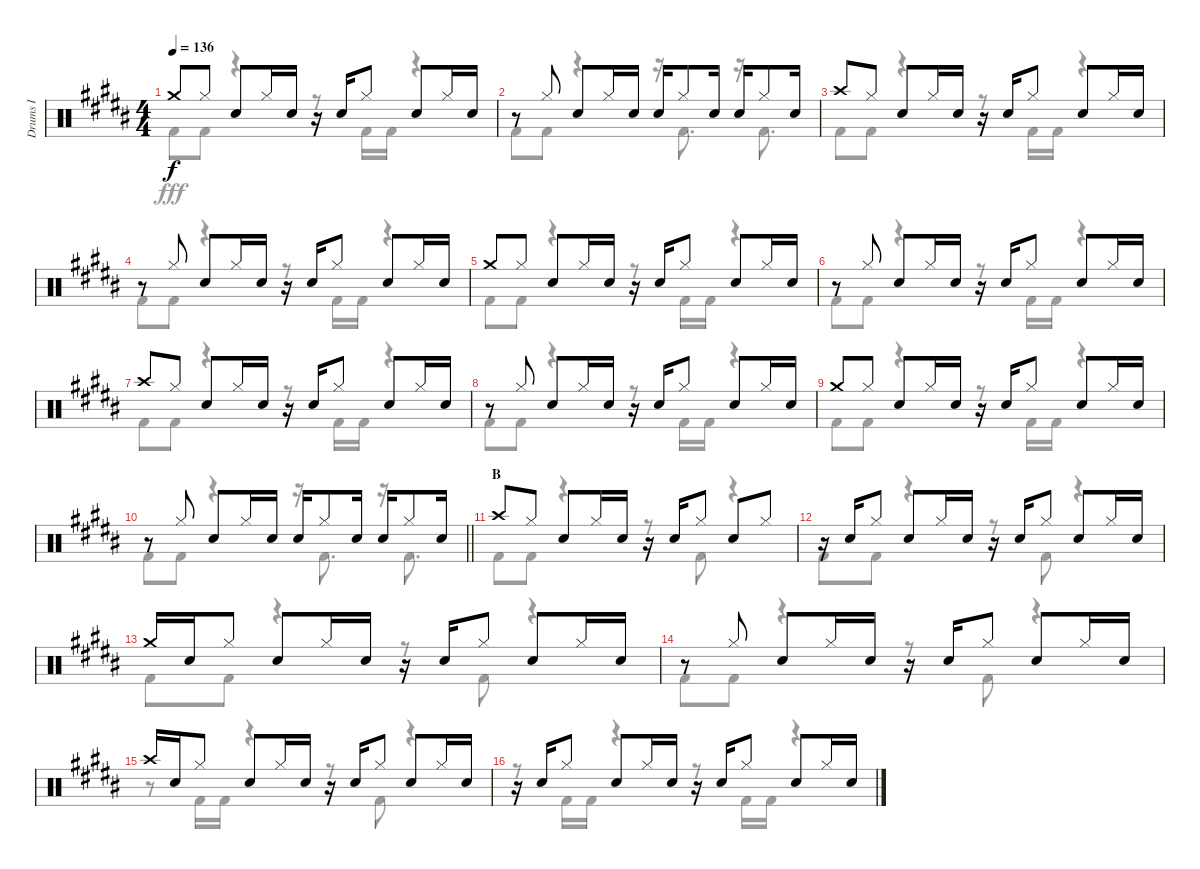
\track ("Drums I" "Drums I") {instrument percussion}
\staff {score}
\articulation defaults
\voice
\ts (4 4)
\tempo 136
\clef neutral
\ks b "Crash medium (hit)".8{dy f} "Hi-Hat (closed)".8 "Snare (hit) 2".8 "Hi-Hat (closed)".16 "Snare (hit) 2".16
r.16 "Snare (hit) 2".16 "Hi-Hat (closed)".8 "Snare (hit) 2".8 "Hi-Hat (closed)".16 "Snare (hit) 2".16 |
r.8 "Hi-Hat (closed)".8 "Snare (hit) 2".8 "Hi-Hat (closed)".16 "Snare (hit) 2".16 "Snare (hit) 2".16 "Hi-Hat (closed)".8 "Snare (hit) 2".16 "Snare (hit) 2".16 "Hi-Hat (closed)".8 "Snare (hit) 2".16 |
"Crash high (hit)".8 "Hi-Hat (closed)".8 "Snare (hit) 2".8 "Hi-Hat (closed)".16 "Snare (hit) 2".16 r.16 "Snare (hit) 2".16 "Hi-Hat (closed)".8 "Snare (hit) 2".8 "Hi-Hat (closed)".16 "Snare (hit) 2".16 |
r.8 "Hi-Hat (closed)".8 "Snare (hit) 2".8 "Hi-Hat (closed)".16 "Snare (hit) 2".16 r.16 "Snare (hit) 2".16 "Hi-Hat (closed)".8 "Snare (hit) 2".8 "Hi-Hat (closed)".16 "Snare (hit) 2".16 |
"Crash medium (hit)".8 "Hi-Hat (closed)".8 "Snare (hit) 2".8 "Hi-Hat (closed)".16 "Snare (hit) 2".16 r.16 "Snare (hit) 2".16 "Hi-Hat (closed)".8 "Snare (hit) 2".8 "Hi-Hat (closed)".16 "Snare (hit) 2".16 |
r.8 "Hi-Hat (closed)".8 "Snare (hit) 2".8 "Hi-Hat (closed)".16 "Snare (hit) 2".16 r.16 "Snare (hit) 2".16 "Hi-Hat (closed)".8 "Snare (hit) 2".8 "Hi-Hat (closed)".16 "Snare (hit) 2".16 |
"Crash high (hit)".8 "Hi-Hat (closed)".8 "Snare (hit) 2".8 "Hi-Hat (closed)".16 "Snare (hit) 2".16 r.16 "Snare (hit) 2".16 "Hi-Hat (closed)".8 "Snare (hit) 2".8 "Hi-Hat (closed)".16 "Snare (hit) 2".16 |
r.8 "Hi-Hat (closed)".8 "Snare (hit) 2".8 "Hi-Hat (closed)".16 "Snare (hit) 2".16 r.16 "Snare (hit) 2".16 "Hi-Hat (closed)".8 "Snare (hit) 2".8 "Hi-Hat (closed)".16 "Snare (hit) 2".16 |
"Crash medium (hit)".8 "Hi-Hat (closed)".8 "Snare (hit) 2".8 "Hi-Hat (closed)".16 "Snare (hit) 2".16 r.16 "Snare (hit) 2".16 "Hi-Hat (closed)".8 "Snare (hit) 2".8 "Hi-Hat (closed)".16 "Snare (hit) 2".16 |
\barLineRight lightlight
r.8 "Hi-Hat (closed)".8 "Snare (hit) 2".8 "Hi-Hat (closed)".16 "Snare (hit) 2".16 "Snare (hit) 2".16 "Hi-Hat (closed)".8 "Snare (hit) 2".16 "Snare (hit) 2".16 "Hi-Hat (closed)".8 "Snare (hit) 2".16 |
\section ("" "B")
"Crash high (hit)".8 "Hi-Hat (closed)".8 "Snare (hit) 2".8 "Hi-Hat (closed)".16 "Snare (hit) 2".16 r.16 "Snare (hit) 2".16 "Hi-Hat (closed)".8 "Snare (hit) 2".8 "Hi-Hat (closed)".8 |
r.16 "Snare (hit) 2".16 "Hi-Hat (closed)".8 "Snare (hit) 2".8 "Hi-Hat (closed)".16 "Snare (hit) 2".16 r.16 "Snare (hit) 2".16 "Hi-Hat (closed)".8 "Snare (hit) 2".8 "Hi-Hat (closed)".16 "Snare (hit) 2".16 |
"Crash medium (hit)".16 "Snare (hit) 2".16 "Hi-Hat (closed)".8 "Snare (hit) 2".8 "Hi-Hat (closed)".16 "Snare (hit) 2".16 r.16 "Snare (hit) 2".16 "Hi-Hat (closed)".8 "Snare (hit) 2".8 "Hi-Hat (closed)".16 "Snare (hit) 2".16 |
r.8 "Hi-Hat (closed)".8 "Snare (hit) 2".8 "Hi-Hat (closed)".16 "Snare (hit) 2".16 r.16 "Snare (hit) 2".16 "Hi-Hat (closed)".8 "Snare (hit) 2".8 "Hi-Hat (closed)".16 "Snare (hit) 2".16 |
"Crash high (hit)".16 "Snare (hit) 2".16 "Hi-Hat (closed)".8 "Snare (hit) 2".8 "Hi-Hat (closed)".16 "Snare (hit) 2".16 r.16 "Snare (hit) 2".16 "Hi-Hat (closed)".8 "Snare (hit) 2".8 "Hi-Hat (closed)".16 "Snare (hit) 2".16 |
r.16 "Snare (hit) 2".16 "Hi-Hat (closed)".8 "Snare (hit) 2".8 "Hi-Hat (closed)".16 "Snare (hit) 2".16 r.16 "Snare (hit) 2".16 "Hi-Hat (closed)".8 "Snare (hit) 2".8 "Hi-Hat (closed)".16 "Snare (hit) 2".16
\voice
\clef neutral
\ottava regular
\simile none
\ks b "Kick (hit) 2".8{dy fff} "Kick (hit) 2".8
r.4 r.8 "Kick (hit) 2".16 "Kick (hit) 2".16 r.4 |
"Kick (hit) 2".8 "Kick (hit) 2".8 r.4 r.16 "Kick (hit) 2".8{d} r.16 "Kick (hit) 2".8{d} |
"Kick (hit) 2".8 "Kick (hit) 2".8 r.4 r.8 "Kick (hit) 2".16 "Kick (hit) 2".16 r.4 |
"Kick (hit) 2".8 "Kick (hit) 2".8 r.4 r.8 "Kick (hit) 2".16 "Kick (hit) 2".16 r.4 |
"Kick (hit) 2".8 "Kick (hit) 2".8 r.4 r.8 "Kick (hit) 2".16 "Kick (hit) 2".16 r.4 |
"Kick (hit) 2".8 "Kick (hit) 2".8 r.4 r.8 "Kick (hit) 2".16 "Kick (hit) 2".16 r.4 |
"Kick (hit) 2".8 "Kick (hit) 2".8 r.4 r.8 "Kick (hit) 2".16 "Kick (hit) 2".16 r.4 |
"Kick (hit) 2".8 "Kick (hit) 2".8 r.4 r.8 "Kick (hit) 2".16 "Kick (hit) 2".16 r.4 |
"Kick (hit) 2".8 "Kick (hit) 2".8 r.4 r.8 "Kick (hit) 2".16 "Kick (hit) 2".16 r.4 |
\barLineRight lightlight "Kick (hit) 2".8 "Kick (hit) 2".8
r.4 r.16 "Kick (hit) 2".8{d} r.16 "Kick (hit) 2".8{d} |
"Kick (hit) 2".8 "Kick (hit) 2".8 r.4 r.8 "Kick (hit) 2".8 r.4 |
"Kick (hit) 2".8 "Kick (hit) 2".8 r.4 r.8 "Kick (hit) 2".8 r.4 |
"Kick (hit) 2".8 "Kick (hit) 2".8 r.4 r.8 "Kick (hit) 2".8 r.4 |
"Kick (hit) 2".8 "Kick (hit) 2".8 r.4 r.8 "Kick (hit) 2".8 r.4 |
r.8 "Kick (hit) 2".16 "Kick (hit) 2".16 r.4 r.8 "Kick (hit) 2".8 r.4 |
r.8 "Kick (hit) 2".16 "Kick (hit) 2".16 r.4 r.8 "Kick (hit) 2".16 "Kick (hit) 2".16 r.4
